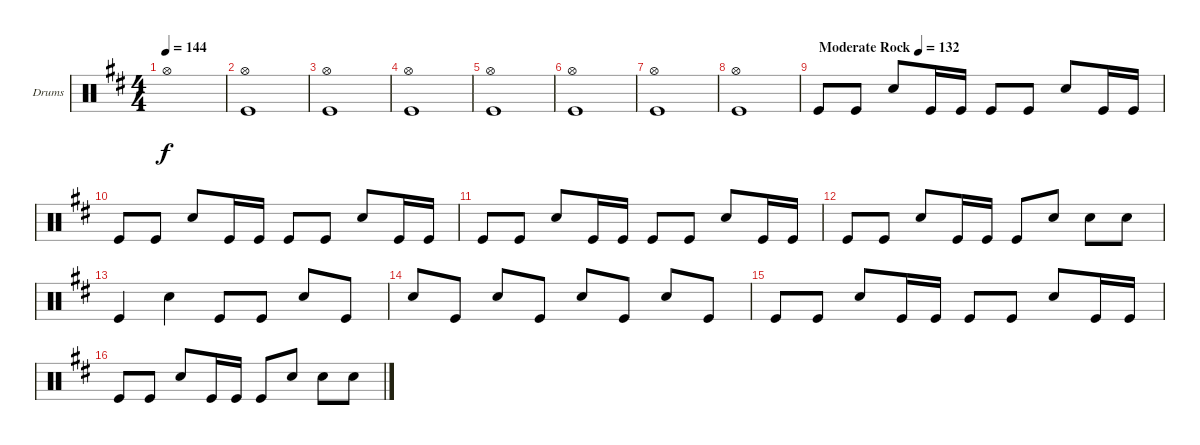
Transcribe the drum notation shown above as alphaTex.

\defaultSystemsLayout 4
\bracketExtendMode groupsimilarinstruments
\firstSystemTrackNameOrientation horizontal
\otherSystemsTrackNameOrientation horizontal
\track ("Drumkit" "Drums") {instrument percussion}
\staff {score}
\articulation defaults
\ts (4 4)
\tempo 144
\clef neutral
\scale
1.05044
\ks d "Hi-Hat (open)".1{dy f}
|
\scale
0.949559 ("Hi-Hat (open)" "Kick (hit)").1 |
\scale
1.05044 ("Hi-Hat (open)" "Kick (hit)").1 |
\scale
0.949559 ("Hi-Hat (open)" "Kick (hit)").1 |
\scale
1.05044 ("Hi-Hat (open)" "Kick (hit)").1 |
\scale
0.949559 ("Hi-Hat (open)" "Kick (hit)").1 |
\scale
1.05044 ("Hi-Hat (open)" "Kick (hit)").1 |
\scale
0.949559 ("Hi-Hat (open)" "Kick (hit)").1 |
\tempo (132 "Moderate Rock")
\scale
1.05044 "Kick (hit)".8 "Kick (hit)".8 "Snare (hit) 2".8 "Kick (hit)".16 "Kick (hit)".16 "Kick (hit)".8 "Kick (hit)".8 "Snare (hit) 2".8 "Kick (hit)".16 "Kick (hit)".16 |
\scale
0.949559 "Kick (hit)".8 "Kick (hit)".8 "Snare (hit) 2".8 "Kick (hit)".16 "Kick (hit)".16 "Kick (hit)".8 "Kick (hit)".8 "Snare (hit) 2".8 "Kick (hit)".16 "Kick (hit)".16 |
\scale
1.05044 "Kick (hit)".8 "Kick (hit)".8 "Snare (hit) 2".8 "Kick (hit)".16 "Kick (hit)".16 "Kick (hit)".8 "Kick (hit)".8 "Snare (hit) 2".8 "Kick (hit)".16 "Kick (hit)".16 |
\scale
0.949559 "Kick (hit)".8 "Kick (hit)".8 "Snare (hit) 2".8 "Kick (hit)".16 "Kick (hit)".16 "Kick (hit)".8 "Snare (hit) 2".8 "Snare (hit) 2".8 "Snare (hit) 2".8 |
\scale
1.05044 "Kick (hit)".4 "Snare (hit) 2".4 "Kick (hit)".8 "Kick (hit)".8 "Snare (hit) 2".8 "Kick (hit)".8 |
\scale
0.949559 "Snare (hit) 2".8 "Kick (hit)".8 "Snare (hit) 2".8 "Kick (hit)".8 "Snare (hit) 2".8 "Kick (hit)".8 "Snare (hit) 2".8 "Kick (hit)".8 |
\scale
1.05044 "Kick (hit)".8 "Kick (hit)".8 "Snare (hit) 2".8 "Kick (hit)".16 "Kick (hit)".16 "Kick (hit)".8 "Kick (hit)".8 "Snare (hit) 2".8 "Kick (hit)".16 "Kick (hit)".16 |
\scale
0.949559 "Kick (hit)".8 "Kick (hit)".8 "Snare (hit) 2".8 "Kick (hit)".16 "Kick (hit)".16 "Kick (hit)".8 "Snare (hit) 2".8 "Snare (hit) 2".8 "Snare (hit) 2".8
